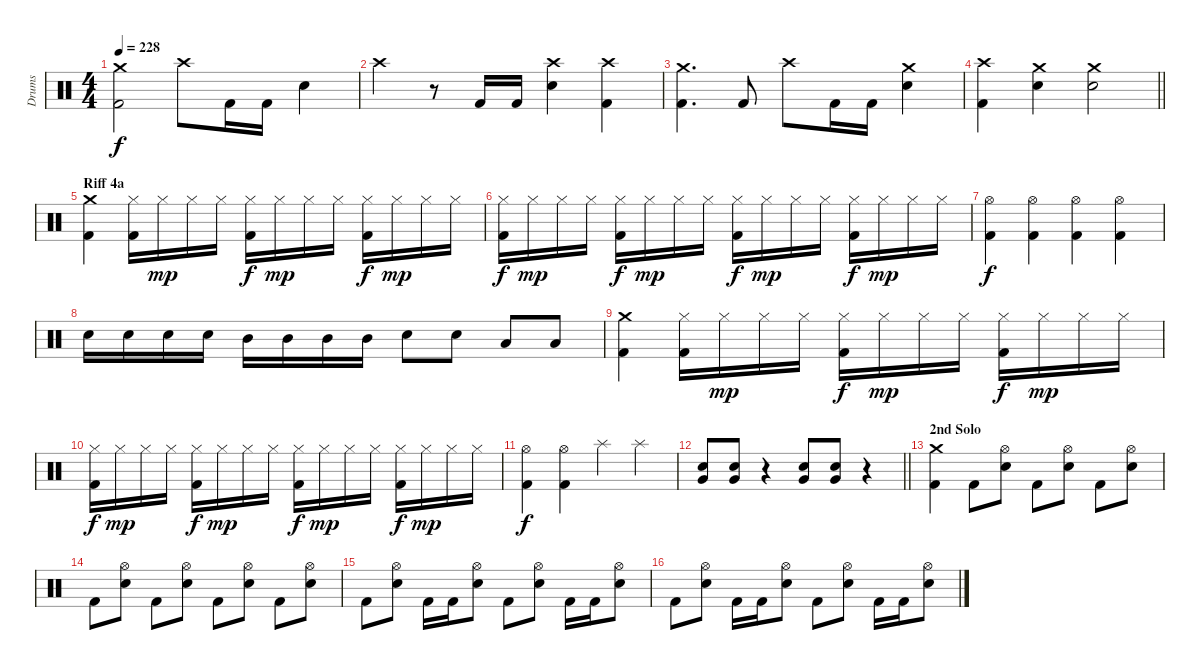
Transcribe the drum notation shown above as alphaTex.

\track ("Drums" "Drums") {instrument percussion}
\staff {score}
\articulation defaults
\ts (4 4)
\tempo 228
\clef neutral
\ks c
("Crash medium (hit)" "Kick (hit) 2").2{dy f} "Crash high (hit)".8 "Kick (hit) 2".16 "Kick (hit) 2".16 "Electric Snare (hit)".4 |
"Crash high (hit)".4 r.8 "Kick (hit) 2".16 "Kick (hit) 2".16 ("Electric Snare (hit)" "Crash high (hit)").4 ("Crash high (hit)" "Kick (hit) 2").4 |
("Crash medium (hit)" "Kick (hit) 2").4{d} "Kick (hit) 2".8 "Crash high (hit)".8 "Kick (hit) 2".16 "Kick (hit) 2".16 ("Electric Snare (hit)" "Crash medium (hit)").4 |
\barLineRight lightlight
("Crash high (hit)" "Kick (hit) 2").4 ("Electric Snare (hit)" "Crash medium (hit)").4 ("Electric Snare (hit)" "Crash medium (hit)").2 |
\section ("" "Riff 4a")
("Kick (hit) 2" "Crash medium (hit)").4 ("Kick (hit) 2" "Hi-Hat (closed)").16 "Hi-Hat (closed)".16{dy mp} "Hi-Hat (closed)".16 "Hi-Hat (closed)".16 ("Kick (hit) 2" "Hi-Hat (closed)").16{dy f} "Hi-Hat (closed)".16{dy mp} "Hi-Hat (closed)".16 "Hi-Hat (closed)".16 ("Kick (hit) 2" "Hi-Hat (closed)").16{dy f} "Hi-Hat (closed)".16{dy mp} "Hi-Hat (closed)".16 "Hi-Hat (closed)".16 |
("Kick (hit) 2" "Hi-Hat (closed)").16{dy f} "Hi-Hat (closed)".16{dy mp} "Hi-Hat (closed)".16 "Hi-Hat (closed)".16 ("Kick (hit) 2" "Hi-Hat (closed)").16{dy f} "Hi-Hat (closed)".16{dy mp} "Hi-Hat (closed)".16 "Hi-Hat (closed)".16 ("Kick (hit) 2" "Hi-Hat (closed)").16{dy f} "Hi-Hat (closed)".16{dy mp} "Hi-Hat (closed)".16 "Hi-Hat (closed)".16 ("Kick (hit) 2" "Hi-Hat (closed)").16{dy f} "Hi-Hat (closed)".16{dy mp} "Hi-Hat (closed)".16 "Hi-Hat (closed)".16 |
("Hi-Hat (open)" "Kick (hit) 2").4{dy f} ("Hi-Hat (open)" "Kick (hit) 2").4 ("Hi-Hat (open)" "Kick (hit) 2").4 ("Hi-Hat (open)" "Kick (hit) 2").4 |
"Electric Snare (hit)".16 "Electric Snare (hit)".16 "Electric Snare (hit)".16 "Electric Snare (hit)".16 "Mid Tom (hit)".16 "Mid Tom (hit)".16 "Mid Tom (hit)".16 "Mid Tom (hit)".16 "Electric Snare (hit)".8 "Electric Snare (hit)".8 "Low Tom (hit)".8 "Low Tom (hit)".8 |
("Kick (hit) 2" "Crash medium (hit)").4 ("Kick (hit) 2" "Hi-Hat (closed)").16 "Hi-Hat (closed)".16{dy mp} "Hi-Hat (closed)".16 "Hi-Hat (closed)".16 ("Kick (hit) 2" "Hi-Hat (closed)").16{dy f} "Hi-Hat (closed)".16{dy mp} "Hi-Hat (closed)".16 "Hi-Hat (closed)".16 ("Kick (hit) 2" "Hi-Hat (closed)").16{dy f} "Hi-Hat (closed)".16{dy mp} "Hi-Hat (closed)".16 "Hi-Hat (closed)".16 |
("Kick (hit) 2" "Hi-Hat (closed)").16{dy f} "Hi-Hat (closed)".16{dy mp} "Hi-Hat (closed)".16 "Hi-Hat (closed)".16 ("Kick (hit) 2" "Hi-Hat (closed)").16{dy f} "Hi-Hat (closed)".16{dy mp} "Hi-Hat (closed)".16 "Hi-Hat (closed)".16 ("Kick (hit) 2" "Hi-Hat (closed)").16{dy f} "Hi-Hat (closed)".16{dy mp} "Hi-Hat (closed)".16 "Hi-Hat (closed)".16 ("Kick (hit) 2" "Hi-Hat (closed)").16{dy f} "Hi-Hat (closed)".16{dy mp} "Hi-Hat (closed)".16 "Hi-Hat (closed)".16 |
("Hi-Hat (open)" "Kick (hit) 2").4{dy f} ("Hi-Hat (open)" "Kick (hit) 2").4 "Splash (hit)".4 "Splash (hit)".4 |
\barLineRight lightlight
("Electric Snare (hit)" "Very Low Tom (hit)").8 ("Electric Snare (hit)" "Very Low Tom (hit)").8 r.4 ("Electric Snare (hit)" "Very Low Tom (hit)").8 ("Electric Snare (hit)" "Very Low Tom (hit)").8 r.4 |
\section ("" "2nd Solo")
("Crash medium (hit)" "Kick (hit) 2").4 "Kick (hit) 2".8 ("Hi-Hat (open)" "Electric Snare (hit)").8 "Kick (hit) 2".8 ("Hi-Hat (open)" "Electric Snare (hit)").8 "Kick (hit) 2".8 ("Hi-Hat (open)" "Electric Snare (hit)").8 |
"Kick (hit) 2".8 ("Hi-Hat (open)" "Electric Snare (hit)").8 "Kick (hit) 2".8 ("Hi-Hat (open)" "Electric Snare (hit)").8 "Kick (hit) 2".8 ("Hi-Hat (open)" "Electric Snare (hit)").8 "Kick (hit) 2".8 ("Hi-Hat (open)" "Electric Snare (hit)").8 |
"Kick (hit) 2".8 ("Hi-Hat (open)" "Electric Snare (hit)").8 "Kick (hit) 2".16 "Kick (hit) 2".16 ("Hi-Hat (open)" "Electric Snare (hit)").8 "Kick (hit) 2".8 ("Hi-Hat (open)" "Electric Snare (hit)").8 "Kick (hit) 2".16 "Kick (hit) 2".16 ("Hi-Hat (open)" "Electric Snare (hit)").8 |
"Kick (hit) 2".8 ("Hi-Hat (open)" "Electric Snare (hit)").8 "Kick (hit) 2".16 "Kick (hit) 2".16 ("Hi-Hat (open)" "Electric Snare (hit)").8 "Kick (hit) 2".8 ("Hi-Hat (open)" "Electric Snare (hit)").8 "Kick (hit) 2".16 "Kick (hit) 2".16 ("Hi-Hat (open)" "Electric Snare (hit)").8
